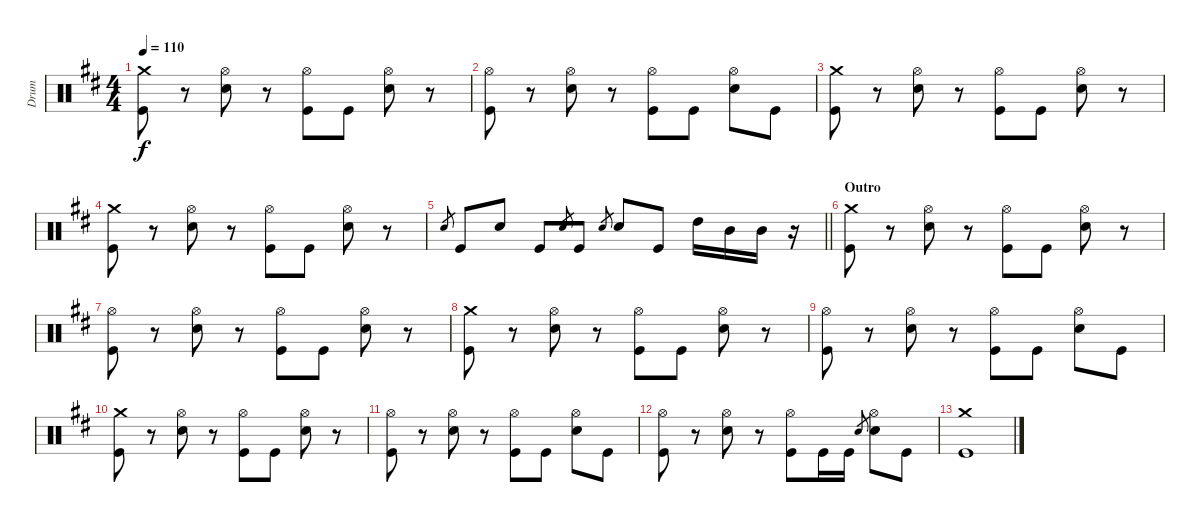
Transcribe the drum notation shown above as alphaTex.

\track ("Drum" "Drum") {instrument percussion}
\staff {score}
\articulation defaults
\ts (4 4)
\tempo 110
\clef neutral
\ks d
("Crash medium (hit)" "Kick (hit)").8{dy f} r.8 ("Hi-Hat (open)" "Electric Snare (hit)").8 r.8 ("Hi-Hat (open)" "Kick (hit)").8 "Kick (hit)".8 ("Hi-Hat (open)" "Electric Snare (hit)").8 r.8 |
("Hi-Hat (open)" "Kick (hit)").8 r.8 ("Hi-Hat (open)" "Electric Snare (hit)").8 r.8 ("Hi-Hat (open)" "Kick (hit)").8 "Kick (hit)".8 ("Hi-Hat (open)" "Electric Snare (hit)").8 "Kick (hit)".8 |
("Crash medium (hit)" "Kick (hit)").8 r.8 ("Hi-Hat (open)" "Electric Snare (hit)").8 r.8 ("Hi-Hat (open)" "Kick (hit)").8 "Kick (hit)".8 ("Hi-Hat (open)" "Electric Snare (hit)").8 r.8 |
("Crash medium (hit)" "Kick (hit)").8 r.8 ("Hi-Hat (open)" "Electric Snare (hit)").8 r.8 ("Hi-Hat (open)" "Kick (hit)").8 "Kick (hit)".8 ("Hi-Hat (open)" "Electric Snare (hit)").8 r.8 |
\barLineRight lightlight "Electric Snare (hit)".8{gr} "Kick (hit)".8 "Electric Snare (hit)".8 "Kick (hit)".8 "Electric Snare (hit)".8{gr} "Kick (hit)".8 "Electric Snare (hit)".8{gr} "Electric Snare (hit)".8 "Kick (hit)".8 "High Tom (hit)".16 "Mid Tom (hit)".16 "Mid Tom (hit)".16
r.16 |
\section ("" "Outro")
("Crash medium (hit)" "Kick (hit)").8 r.8 ("Hi-Hat (open)" "Electric Snare (hit)").8 r.8 ("Hi-Hat (open)" "Kick (hit)").8 "Kick (hit)".8 ("Hi-Hat (open)" "Electric Snare (hit)").8 r.8 |
("Hi-Hat (open)" "Kick (hit)").8 r.8 ("Hi-Hat (open)" "Electric Snare (hit)").8 r.8 ("Hi-Hat (open)" "Kick (hit)").8 "Kick (hit)".8 ("Hi-Hat (open)" "Electric Snare (hit)").8 r.8 |
("Crash medium (hit)" "Kick (hit)").8 r.8 ("Hi-Hat (open)" "Electric Snare (hit)").8 r.8 ("Hi-Hat (open)" "Kick (hit)").8 "Kick (hit)".8 ("Hi-Hat (open)" "Electric Snare (hit)").8 r.8 |
("Hi-Hat (open)" "Kick (hit)").8 r.8 ("Hi-Hat (open)" "Electric Snare (hit)").8 r.8 ("Hi-Hat (open)" "Kick (hit)").8 "Kick (hit)".8 ("Hi-Hat (open)" "Electric Snare (hit)").8 "Kick (hit)".8 |
("Crash medium (hit)" "Kick (hit)").8 r.8 ("Hi-Hat (open)" "Electric Snare (hit)").8 r.8 ("Hi-Hat (open)" "Kick (hit)").8 "Kick (hit)".8 ("Hi-Hat (open)" "Electric Snare (hit)").8 r.8 |
("Hi-Hat (open)" "Kick (hit)").8 r.8 ("Hi-Hat (open)" "Electric Snare (hit)").8 r.8 ("Hi-Hat (open)" "Kick (hit)").8 "Kick (hit)".8 ("Hi-Hat (open)" "Electric Snare (hit)").8 "Kick (hit)".8 |
("Hi-Hat (open)" "Kick (hit)").8 r.8 ("Hi-Hat (open)" "Electric Snare (hit)").8 r.8 ("Hi-Hat (open)" "Kick (hit)").8 "Kick (hit)".16 "Kick (hit)".16 "Electric Snare (hit)".8{gr} ("Hi-Hat (open)" "Electric Snare (hit)").8 "Kick (hit)".8 |
("Crash medium (hit)" "Kick (hit)").1
